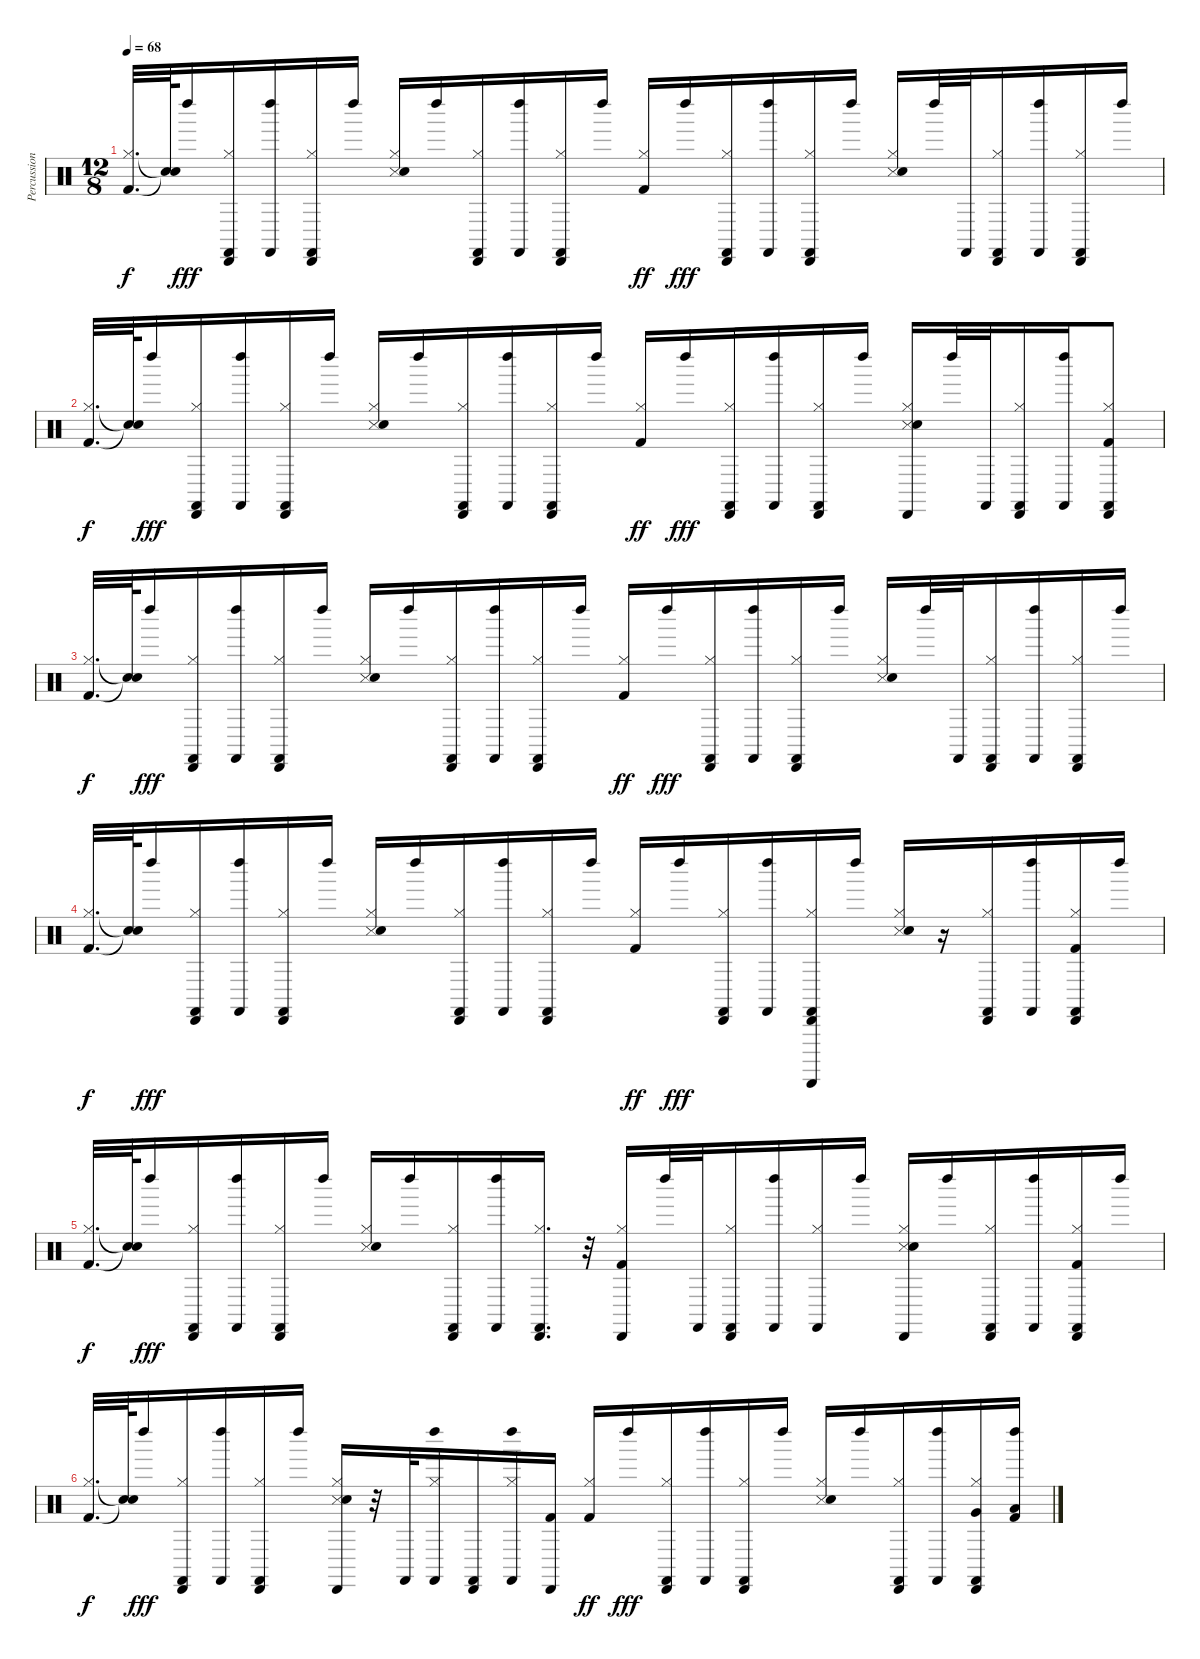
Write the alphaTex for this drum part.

\track ("Percussion" "Percussion") {instrument percussion}
\staff {score}
\articulation defaults
\ts (12 8)
\tempo 68
\clef neutral
\ks c
("Kick (hit) 2" "Hi-Hat (closed)").32{d dy f} ("Snare (hit)"{t} "Snare (hit)"{t}).64 "Left Maraca (hit)".16{dy fff} ("Hi-Hat (closed)" "Cabasa (hit)" "Castanets (hit)").16 ("Left Maraca (hit)" "Castanets (hit)").16 ("Hi-Hat (closed)" "Cabasa (hit)" "Castanets (hit)").16 "Left Maraca (hit)".16 ("Snare (side stick) 3" "Hi-Hat (closed)" "Snare (hit) 2").16 "Left Maraca (hit)".16 ("Hi-Hat (closed)" "Cabasa (hit)" "Castanets (hit)").16 ("Left Maraca (hit)" "Castanets (hit)").16 ("Hi-Hat (closed)" "Cabasa (hit)" "Castanets (hit)").16 "Left Maraca (hit)".16 ("Kick (hit) 2" "Hi-Hat (closed)").16{dy ff} "Left Maraca (hit)".16{dy fff} ("Hi-Hat (closed)" "Cabasa (hit)" "Castanets (hit)").16 ("Left Maraca (hit)" "Castanets (hit)").16 ("Hi-Hat (closed)" "Cabasa (hit)" "Castanets (hit)").16 "Left Maraca (hit)".16 ("Snare (side stick) 3" "Hi-Hat (closed)" "Snare (hit) 2").16 "Left Maraca (hit)".32 "Castanets (hit)".32 ("Hi-Hat (closed)" "Cabasa (hit)" "Castanets (hit)").16 ("Left Maraca (hit)" "Castanets (hit)").16 ("Hi-Hat (closed)" "Cabasa (hit)" "Castanets (hit)").16 "Left Maraca (hit)".16 |
("Kick (hit) 2" "Hi-Hat (closed)").32{d dy f} ("Snare (hit)"{t} "Snare (hit)"{t}).64 "Left Maraca (hit)".16{dy fff} ("Hi-Hat (closed)" "Cabasa (hit)" "Castanets (hit)").16 ("Left Maraca (hit)" "Castanets (hit)").16 ("Hi-Hat (closed)" "Cabasa (hit)" "Castanets (hit)").16 "Left Maraca (hit)".16 ("Snare (side stick) 3" "Hi-Hat (closed)" "Snare (hit) 2").16 "Left Maraca (hit)".16 ("Hi-Hat (closed)" "Cabasa (hit)" "Castanets (hit)").16 ("Left Maraca (hit)" "Castanets (hit)").16 ("Hi-Hat (closed)" "Cabasa (hit)" "Castanets (hit)").16 "Left Maraca (hit)".16 ("Kick (hit) 2" "Hi-Hat (closed)").16{dy ff} "Left Maraca (hit)".16{dy fff} ("Hi-Hat (closed)" "Cabasa (hit)" "Castanets (hit)").16 ("Left Maraca (hit)" "Castanets (hit)").16 ("Hi-Hat (closed)" "Cabasa (hit)" "Castanets (hit)").16 "Left Maraca (hit)".16 ("Snare (side stick) 3" "Hi-Hat (closed)" "Cabasa (hit)" "Snare (hit) 2").16 "Left Maraca (hit)".32 "Castanets (hit)".32 ("Hi-Hat (closed)" "Cabasa (hit)" "Castanets (hit)").16 ("Left Maraca (hit)" "Castanets (hit)").16 ("Kick (hit) 2" "Hi-Hat (closed)" "Cabasa (hit)" "Castanets (hit)").8 |
("Kick (hit) 2" "Hi-Hat (closed)").32{d dy f} ("Snare (hit)"{t} "Snare (hit)"{t}).64 "Left Maraca (hit)".16{dy fff} ("Hi-Hat (closed)" "Cabasa (hit)" "Castanets (hit)").16 ("Left Maraca (hit)" "Castanets (hit)").16 ("Hi-Hat (closed)" "Cabasa (hit)" "Castanets (hit)").16 "Left Maraca (hit)".16 ("Snare (side stick) 3" "Hi-Hat (closed)" "Snare (hit) 2").16 "Left Maraca (hit)".16 ("Hi-Hat (closed)" "Cabasa (hit)" "Castanets (hit)").16 ("Left Maraca (hit)" "Castanets (hit)").16 ("Hi-Hat (closed)" "Cabasa (hit)" "Castanets (hit)").16 "Left Maraca (hit)".16 ("Kick (hit) 2" "Hi-Hat (closed)").16{dy ff} "Left Maraca (hit)".16{dy fff} ("Hi-Hat (closed)" "Cabasa (hit)" "Castanets (hit)").16 ("Left Maraca (hit)" "Castanets (hit)").16 ("Hi-Hat (closed)" "Cabasa (hit)" "Castanets (hit)").16 "Left Maraca (hit)".16 ("Snare (side stick) 3" "Hi-Hat (closed)" "Snare (hit) 2").16 "Left Maraca (hit)".32 "Castanets (hit)".32 ("Hi-Hat (closed)" "Cabasa (hit)" "Castanets (hit)").16 ("Left Maraca (hit)" "Castanets (hit)").16 ("Hi-Hat (closed)" "Cabasa (hit)" "Castanets (hit)").16 "Left Maraca (hit)".16 |
("Kick (hit) 2" "Hi-Hat (closed)").32{d dy f} ("Snare (hit)"{t} "Snare (hit)"{t}).64 "Left Maraca (hit)".16{dy fff} ("Hi-Hat (closed)" "Cabasa (hit)" "Castanets (hit)").16 ("Left Maraca (hit)" "Castanets (hit)").16 ("Hi-Hat (closed)" "Cabasa (hit)" "Castanets (hit)").16 "Left Maraca (hit)".16 ("Snare (side stick) 3" "Hi-Hat (closed)" "Snare (hit) 2").16 "Left Maraca (hit)".16 ("Hi-Hat (closed)" "Cabasa (hit)" "Castanets (hit)").16 ("Left Maraca (hit)" "Castanets (hit)").16 ("Hi-Hat (closed)" "Cabasa (hit)" "Castanets (hit)").16 "Left Maraca (hit)".16 ("Kick (hit) 2" "Hi-Hat (closed)").16{dy ff} "Left Maraca (hit)".16{dy fff} ("Hi-Hat (closed)" "Cabasa (hit)" "Castanets (hit)").16 ("Left Maraca (hit)" "Castanets (hit)").16 ("Hi-Hat (closed)" "Guiro (scrap-return)" "Cabasa (hit)" "Castanets (hit)").16 "Left Maraca (hit)".16 ("Snare (side stick) 3" "Hi-Hat (closed)" "Snare (hit) 2").16 r.16 ("Hi-Hat (closed)" "Cabasa (hit)" "Castanets (hit)").16 ("Left Maraca (hit)" "Castanets (hit)").16 ("Kick (hit) 2" "Hi-Hat (closed)" "Cabasa (hit)" "Castanets (hit)").16 "Left Maraca (hit)".16 |
("Kick (hit) 2" "Hi-Hat (closed)").32{d dy f} ("Snare (hit)"{t} "Snare (hit)"{t}).64 "Left Maraca (hit)".16{dy fff} ("Hi-Hat (closed)" "Cabasa (hit)" "Castanets (hit)").16 ("Left Maraca (hit)" "Castanets (hit)").16 ("Hi-Hat (closed)" "Cabasa (hit)" "Castanets (hit)").16 "Left Maraca (hit)".16 ("Snare (side stick) 3" "Hi-Hat (closed)" "Snare (hit) 2").16 "Left Maraca (hit)".16 ("Hi-Hat (closed)" "Cabasa (hit)" "Castanets (hit)").16 ("Left Maraca (hit)" "Castanets (hit)").16 ("Hi-Hat (closed)" "Cabasa (hit)" "Castanets (hit)").16{d} r.32 ("Kick (hit) 2" "Hi-Hat (closed)" "Cabasa (hit)").16 "Left Maraca (hit)".32 "Castanets (hit)".32 ("Hi-Hat (closed)" "Cabasa (hit)" "Castanets (hit)").16 ("Left Maraca (hit)" "Castanets (hit)").16 ("Hi-Hat (closed)" "Castanets (hit)").16 "Left Maraca (hit)".16 ("Snare (side stick) 3" "Hi-Hat (closed)" "Cabasa (hit)" "Snare (hit) 2").16 "Left Maraca (hit)".16 ("Hi-Hat (closed)" "Cabasa (hit)" "Castanets (hit)").16 ("Left Maraca (hit)" "Castanets (hit)").16 ("Kick (hit) 2" "Hi-Hat (closed)" "Cabasa (hit)" "Castanets (hit)").16 "Left Maraca (hit)".16 |
("Kick (hit) 2" "Hi-Hat (closed)").32{d dy f} ("Snare (hit)"{t} "Snare (hit)"{t}).64 "Left Maraca (hit)".16{dy fff} ("Hi-Hat (closed)" "Cabasa (hit)" "Castanets (hit)").16 ("Left Maraca (hit)" "Castanets (hit)").16 ("Hi-Hat (closed)" "Cabasa (hit)" "Castanets (hit)").16 "Left Maraca (hit)".16 ("Snare (side stick) 3" "Hi-Hat (closed)" "Cabasa (hit)" "Snare (hit) 2").16 r.32 "Castanets (hit)".32 ("Hi-Hat (closed)" "Left Maraca (hit)" "Castanets (hit)").16 ("Cabasa (hit)" "Castanets (hit)").16 ("Hi-Hat (closed)" "Left Maraca (hit)" "Castanets (hit)").16 ("Kick (hit) 2" "Cabasa (hit)").16 ("Hi-Hat (closed)" "Kick (hit) 2").16{dy ff} "Left Maraca (hit)".16{dy fff} ("Hi-Hat (closed)" "Cabasa (hit)" "Castanets (hit)").16 ("Left Maraca (hit)" "Castanets (hit)").16 ("Hi-Hat (closed)" "Cabasa (hit)" "Castanets (hit)").16 "Left Maraca (hit)".16 ("Hi-Hat (closed)" "Snare (side stick) 3" "Snare (hit) 2").16 "Left Maraca (hit)".16 ("Hi-Hat (closed)" "Cabasa (hit)" "Castanets (hit)").16 ("Left Maraca (hit)" "Castanets (hit)").16 ("Hi-Hat (closed)" "Very Low Tom (hit)" "Cabasa (hit)" "Castanets (hit)").16 ("Low Floor Tom (hit)" "Kick (hit) 2" "Left Maraca (hit)").16
